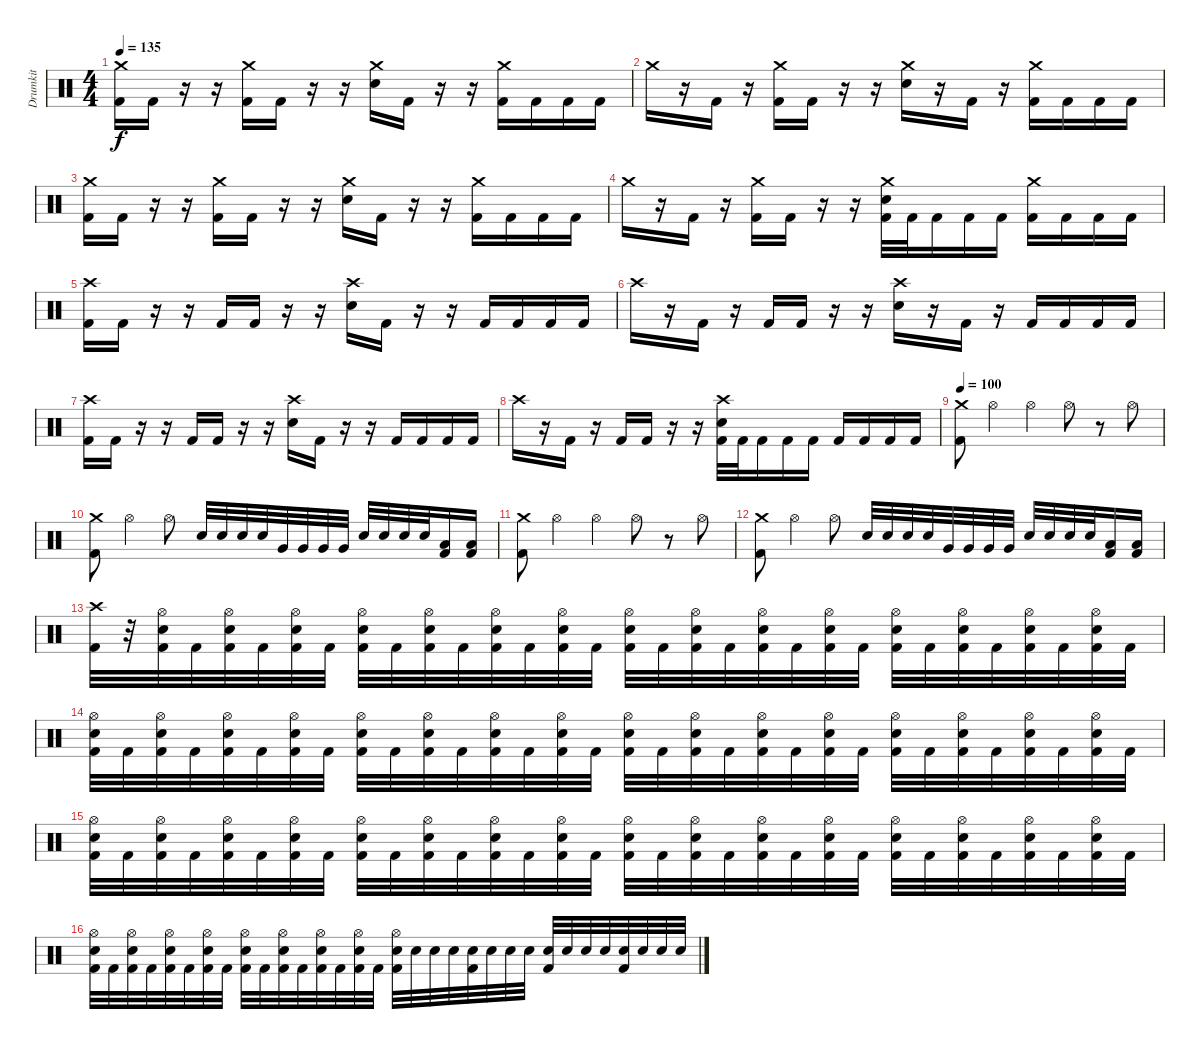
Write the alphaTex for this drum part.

\track ("Drumkit" "Drumkit") {instrument percussion}
\staff {score}
\articulation defaults
\ts (4 4)
\tempo 135
\clef neutral
\ks c
("Crash medium (hit)" "Kick (hit) 2").16{dy f} "Kick (hit) 2".16 r.16 r.16 ("Crash medium (hit)" "Kick (hit) 2").16 "Kick (hit) 2".16 r.16 r.16 ("Crash medium (hit)" "Electric Snare (hit)").16 "Kick (hit) 2".16 r.16 r.16 ("Crash medium (hit)" "Kick (hit) 2").16 "Kick (hit) 2".16 "Kick (hit) 2".16 "Kick (hit) 2".16 |
"Crash medium (hit)".16 r.16 "Kick (hit) 2".16 r.16 ("Crash medium (hit)" "Kick (hit) 2").16 "Kick (hit) 2".16 r.16 r.16 ("Crash medium (hit)" "Electric Snare (hit)").16 r.16 "Kick (hit) 2".16 r.16 ("Crash medium (hit)" "Kick (hit) 2").16 "Kick (hit) 2".16 "Kick (hit) 2".16 "Kick (hit) 2".16 |
("Crash medium (hit)" "Kick (hit) 2").16 "Kick (hit) 2".16 r.16 r.16 ("Crash medium (hit)" "Kick (hit) 2").16 "Kick (hit) 2".16 r.16 r.16 ("Crash medium (hit)" "Electric Snare (hit)").16 "Kick (hit) 2".16 r.16 r.16 ("Crash medium (hit)" "Kick (hit) 2").16 "Kick (hit) 2".16 "Kick (hit) 2".16 "Kick (hit) 2".16 |
"Crash medium (hit)".16 r.16 "Kick (hit) 2".16 r.16 ("Crash medium (hit)" "Kick (hit) 2").16 "Kick (hit) 2".16 r.16 r.16 ("Crash medium (hit)" "Electric Snare (hit)" "Kick (hit) 2").32 "Kick (hit) 2".32 "Kick (hit) 2".16 "Kick (hit) 2".16 "Kick (hit) 2".16 ("Crash medium (hit)" "Kick (hit) 2").16 "Kick (hit) 2".16 "Kick (hit) 2".16 "Kick (hit) 2".16 |
("Crash high (hit)" "Kick (hit) 2").16 "Kick (hit) 2".16 r.16 r.16 "Kick (hit) 2".16 "Kick (hit) 2".16 r.16 r.16 ("Crash high (hit)" "Electric Snare (hit)").16 "Kick (hit) 2".16 r.16 r.16 "Kick (hit) 2".16 "Kick (hit) 2".16 "Kick (hit) 2".16 "Kick (hit) 2".16 |
"Crash high (hit)".16 r.16 "Kick (hit) 2".16 r.16 "Kick (hit) 2".16 "Kick (hit) 2".16 r.16 r.16 ("Crash high (hit)" "Electric Snare (hit)").16 r.16 "Kick (hit) 2".16 r.16 "Kick (hit) 2".16 "Kick (hit) 2".16 "Kick (hit) 2".16 "Kick (hit) 2".16 |
("Crash high (hit)" "Kick (hit) 2").16 "Kick (hit) 2".16 r.16 r.16 "Kick (hit) 2".16 "Kick (hit) 2".16 r.16 r.16 ("Crash high (hit)" "Electric Snare (hit)").16 "Kick (hit) 2".16 r.16 r.16 "Kick (hit) 2".16 "Kick (hit) 2".16 "Kick (hit) 2".16 "Kick (hit) 2".16 |
"Crash high (hit)".16 r.16 "Kick (hit) 2".16 r.16 "Kick (hit) 2".16 "Kick (hit) 2".16 r.16 r.16 ("Crash high (hit)" "Electric Snare (hit)" "Kick (hit) 2").32 "Kick (hit) 2".32 "Kick (hit) 2".16 "Kick (hit) 2".16 "Kick (hit) 2".16 "Kick (hit) 2".16 "Kick (hit) 2".16 "Kick (hit) 2".16 "Kick (hit) 2".16 |
\tempo 100
("Crash medium (hit)" "Kick (hit) 2").8 "Hi-Hat (open)".4 "Hi-Hat (open)".4 "Hi-Hat (open)".8 r.8 "Hi-Hat (open)".8 |
("Crash medium (hit)" "Kick (hit) 2").8 "Hi-Hat (open)".4 "Hi-Hat (open)".8 "Electric Snare (hit)".32 "Electric Snare (hit)".32 "Electric Snare (hit)".32 "Electric Snare (hit)".32 "Very Low Tom (hit)".32 "Very Low Tom (hit)".32 "Very Low Tom (hit)".32 "Very Low Tom (hit)".32 "Electric Snare (hit)".32 "Electric Snare (hit)".32 "Electric Snare (hit)".32 "Electric Snare (hit)".32 ("Low Tom (hit)" "Kick (hit) 2").16 ("Low Tom (hit)" "Kick (hit) 2").16 |
("Crash medium (hit)" "Kick (hit) 2").8 "Hi-Hat (open)".4 "Hi-Hat (open)".4 "Hi-Hat (open)".8 r.8 "Hi-Hat (open)".8 |
("Crash medium (hit)" "Kick (hit) 2").8 "Hi-Hat (open)".4 "Hi-Hat (open)".8 "Electric Snare (hit)".32 "Electric Snare (hit)".32 "Electric Snare (hit)".32 "Electric Snare (hit)".32 "Very Low Tom (hit)".32 "Very Low Tom (hit)".32 "Very Low Tom (hit)".32 "Very Low Tom (hit)".32 "Electric Snare (hit)".32 "Electric Snare (hit)".32 "Electric Snare (hit)".32 "Electric Snare (hit)".32 ("Low Tom (hit)" "Kick (hit) 2").16 ("Low Tom (hit)" "Kick (hit) 2").16 |
("Crash high (hit)" "Kick (hit) 2").32 r.32 ("Hi-Hat (open)" "Electric Snare (hit)" "Kick (hit) 2").32 "Kick (hit) 2".32 ("Hi-Hat (open)" "Electric Snare (hit)" "Kick (hit) 2").32 "Kick (hit) 2".32 ("Hi-Hat (open)" "Electric Snare (hit)" "Kick (hit) 2").32 "Kick (hit) 2".32 ("Hi-Hat (open)" "Electric Snare (hit)" "Kick (hit) 2").32 "Kick (hit) 2".32 ("Hi-Hat (open)" "Electric Snare (hit)" "Kick (hit) 2").32 "Kick (hit) 2".32 ("Hi-Hat (open)" "Electric Snare (hit)" "Kick (hit) 2").32 "Kick (hit) 2".32 ("Hi-Hat (open)" "Electric Snare (hit)" "Kick (hit) 2").32 "Kick (hit) 2".32 ("Hi-Hat (open)" "Electric Snare (hit)" "Kick (hit) 2").32 "Kick (hit) 2".32 ("Hi-Hat (open)" "Electric Snare (hit)" "Kick (hit) 2").32 "Kick (hit) 2".32 ("Hi-Hat (open)" "Electric Snare (hit)" "Kick (hit) 2").32 "Kick (hit) 2".32 ("Hi-Hat (open)" "Electric Snare (hit)" "Kick (hit) 2").32 "Kick (hit) 2".32 ("Hi-Hat (open)" "Electric Snare (hit)" "Kick (hit) 2").32 "Kick (hit) 2".32 ("Hi-Hat (open)" "Electric Snare (hit)" "Kick (hit) 2").32 "Kick (hit) 2".32 ("Hi-Hat (open)" "Electric Snare (hit)" "Kick (hit) 2").32 "Kick (hit) 2".32 ("Hi-Hat (open)" "Electric Snare (hit)" "Kick (hit) 2").32 "Kick (hit) 2".32 |
("Hi-Hat (open)" "Electric Snare (hit)" "Kick (hit) 2").32 "Kick (hit) 2".32 ("Hi-Hat (open)" "Electric Snare (hit)" "Kick (hit) 2").32 "Kick (hit) 2".32 ("Hi-Hat (open)" "Electric Snare (hit)" "Kick (hit) 2").32 "Kick (hit) 2".32 ("Hi-Hat (open)" "Electric Snare (hit)" "Kick (hit) 2").32 "Kick (hit) 2".32 ("Hi-Hat (open)" "Electric Snare (hit)" "Kick (hit) 2").32 "Kick (hit) 2".32 ("Hi-Hat (open)" "Electric Snare (hit)" "Kick (hit) 2").32 "Kick (hit) 2".32 ("Hi-Hat (open)" "Electric Snare (hit)" "Kick (hit) 2").32 "Kick (hit) 2".32 ("Hi-Hat (open)" "Electric Snare (hit)" "Kick (hit) 2").32 "Kick (hit) 2".32 ("Hi-Hat (open)" "Electric Snare (hit)" "Kick (hit) 2").32 "Kick (hit) 2".32 ("Hi-Hat (open)" "Electric Snare (hit)" "Kick (hit) 2").32 "Kick (hit) 2".32 ("Hi-Hat (open)" "Electric Snare (hit)" "Kick (hit) 2").32 "Kick (hit) 2".32 ("Hi-Hat (open)" "Electric Snare (hit)" "Kick (hit) 2").32 "Kick (hit) 2".32 ("Hi-Hat (open)" "Electric Snare (hit)" "Kick (hit) 2").32 "Kick (hit) 2".32 ("Hi-Hat (open)" "Electric Snare (hit)" "Kick (hit) 2").32 "Kick (hit) 2".32 ("Hi-Hat (open)" "Electric Snare (hit)" "Kick (hit) 2").32 "Kick (hit) 2".32 ("Hi-Hat (open)" "Electric Snare (hit)" "Kick (hit) 2").32 "Kick (hit) 2".32 |
("Hi-Hat (open)" "Electric Snare (hit)" "Kick (hit) 2").32 "Kick (hit) 2".32 ("Hi-Hat (open)" "Electric Snare (hit)" "Kick (hit) 2").32 "Kick (hit) 2".32 ("Hi-Hat (open)" "Electric Snare (hit)" "Kick (hit) 2").32 "Kick (hit) 2".32 ("Hi-Hat (open)" "Electric Snare (hit)" "Kick (hit) 2").32 "Kick (hit) 2".32 ("Hi-Hat (open)" "Electric Snare (hit)" "Kick (hit) 2").32 "Kick (hit) 2".32 ("Hi-Hat (open)" "Electric Snare (hit)" "Kick (hit) 2").32 "Kick (hit) 2".32 ("Hi-Hat (open)" "Electric Snare (hit)" "Kick (hit) 2").32 "Kick (hit) 2".32 ("Hi-Hat (open)" "Electric Snare (hit)" "Kick (hit) 2").32 "Kick (hit) 2".32 ("Hi-Hat (open)" "Electric Snare (hit)" "Kick (hit) 2").32 "Kick (hit) 2".32 ("Hi-Hat (open)" "Electric Snare (hit)" "Kick (hit) 2").32 "Kick (hit) 2".32 ("Hi-Hat (open)" "Electric Snare (hit)" "Kick (hit) 2").32 "Kick (hit) 2".32 ("Hi-Hat (open)" "Electric Snare (hit)" "Kick (hit) 2").32 "Kick (hit) 2".32 ("Hi-Hat (open)" "Electric Snare (hit)" "Kick (hit) 2").32 "Kick (hit) 2".32 ("Hi-Hat (open)" "Electric Snare (hit)" "Kick (hit) 2").32 "Kick (hit) 2".32 ("Hi-Hat (open)" "Electric Snare (hit)" "Kick (hit) 2").32 "Kick (hit) 2".32 ("Hi-Hat (open)" "Electric Snare (hit)" "Kick (hit) 2").32 "Kick (hit) 2".32 |
("Hi-Hat (open)" "Electric Snare (hit)" "Kick (hit) 2").32 "Kick (hit) 2".32 ("Hi-Hat (open)" "Electric Snare (hit)" "Kick (hit) 2").32 "Kick (hit) 2".32 ("Hi-Hat (open)" "Electric Snare (hit)" "Kick (hit) 2").32 "Kick (hit) 2".32 ("Hi-Hat (open)" "Electric Snare (hit)" "Kick (hit) 2").32 "Kick (hit) 2".32 ("Hi-Hat (open)" "Electric Snare (hit)" "Kick (hit) 2").32 "Kick (hit) 2".32 ("Hi-Hat (open)" "Electric Snare (hit)" "Kick (hit) 2").32 "Kick (hit) 2".32 ("Hi-Hat (open)" "Electric Snare (hit)" "Kick (hit) 2").32 "Kick (hit) 2".32 ("Hi-Hat (open)" "Electric Snare (hit)" "Kick (hit) 2").32 "Kick (hit) 2".32 ("Hi-Hat (open)" "Electric Snare (hit)" "Kick (hit) 2").32 "Electric Snare (hit)".32 "Electric Snare (hit)".32 "Electric Snare (hit)".32 ("Electric Snare (hit)" "Kick (hit) 2").32 "Electric Snare (hit)".32 "Electric Snare (hit)".32 "Electric Snare (hit)".32 ("Electric Snare (hit)" "Kick (hit) 2").32 "Electric Snare (hit)".32 "Electric Snare (hit)".32 "Electric Snare (hit)".32 ("Electric Snare (hit)" "Kick (hit) 2").32 "Electric Snare (hit)".32 "Electric Snare (hit)".32 "Electric Snare (hit)".32
